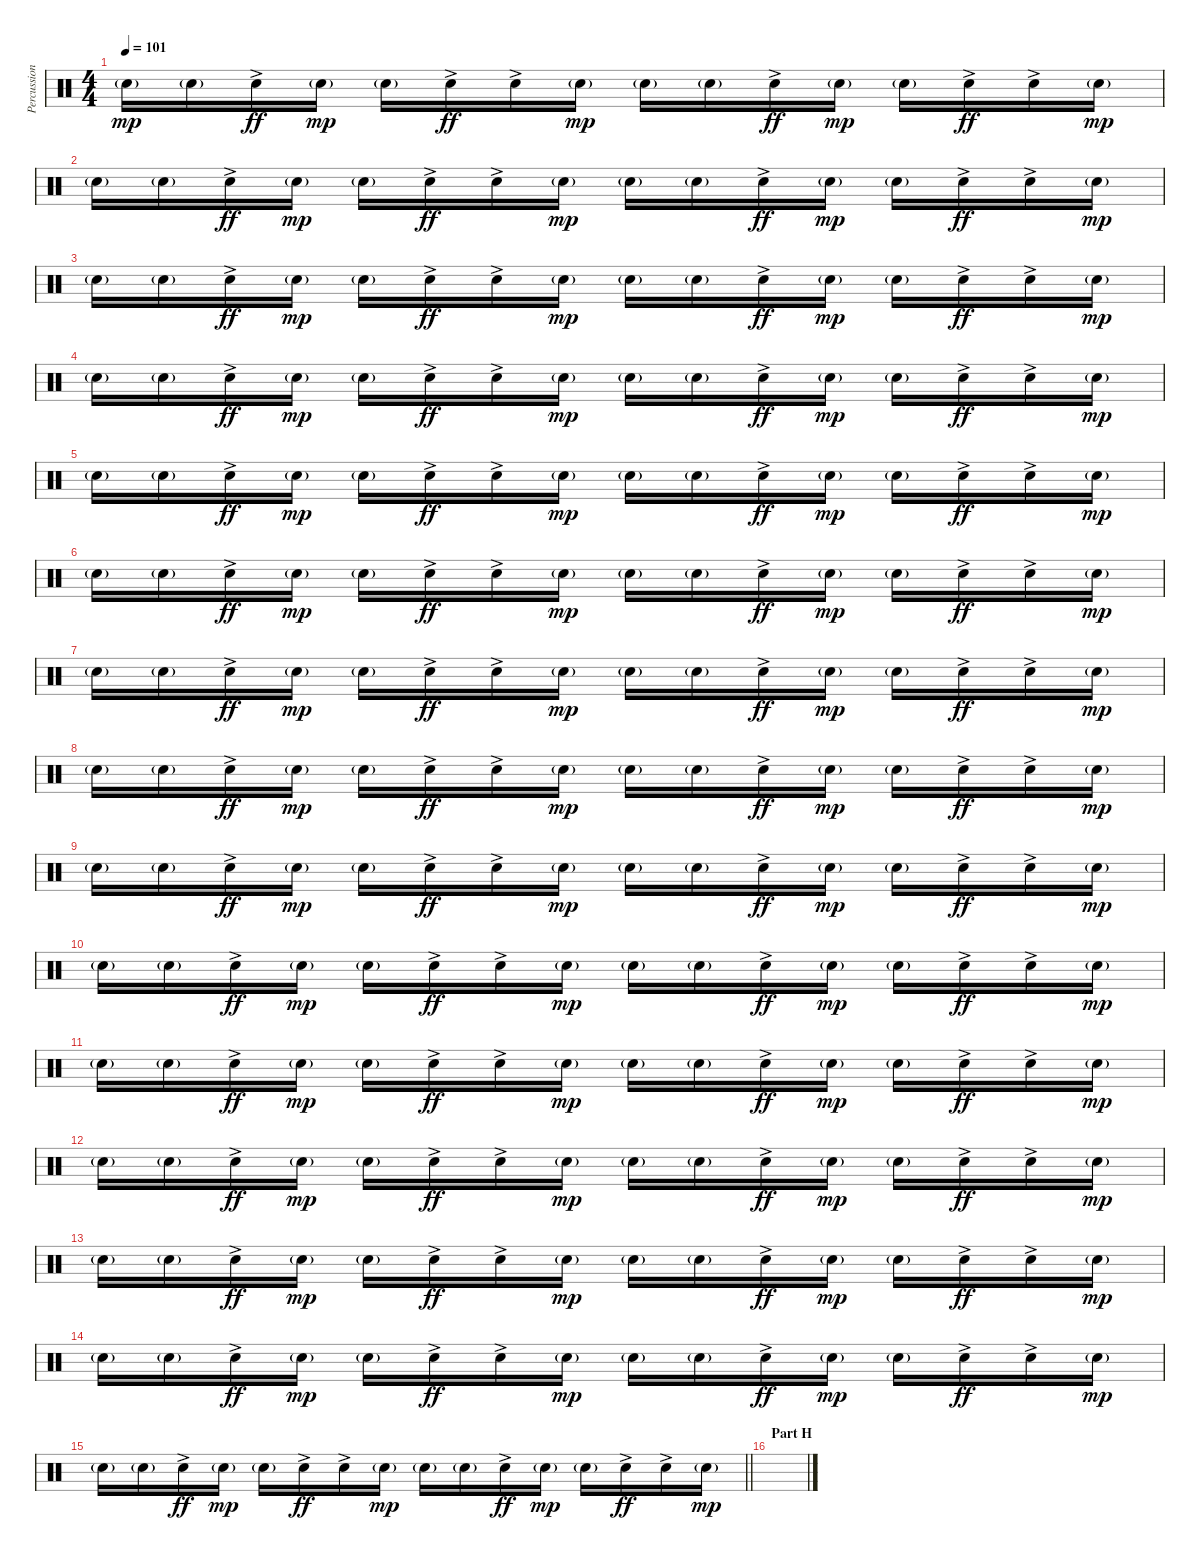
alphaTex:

\track ("Percussion" "Percussion") {instrument percussion}
\staff {score}
\articulation defaults
\ts (4 4)
\tempo 101
\clef neutral
\ks c "Electric Snare (hit)"{g}.16{dy mp} "Electric Snare (hit)"{g}.16 "Electric Snare (hit)"{ac}.16{dy ff} "Electric Snare (hit)"{g}.16{dy mp} "Electric Snare (hit)"{g}.16 "Electric Snare (hit)"{ac}.16{dy ff} "Electric Snare (hit)"{ac}.16 "Electric Snare (hit)"{g}.16{dy mp} "Electric Snare (hit)"{g}.16 "Electric Snare (hit)"{g}.16 "Electric Snare (hit)"{ac}.16{dy ff} "Electric Snare (hit)"{g}.16{dy mp} "Electric Snare (hit)"{g}.16 "Electric Snare (hit)"{ac}.16{dy ff} "Electric Snare (hit)"{ac}.16 "Electric Snare (hit)"{g}.16{dy mp}
|
"Electric Snare (hit)"{g}.16 "Electric Snare (hit)"{g}.16 "Electric Snare (hit)"{ac}.16{dy ff} "Electric Snare (hit)"{g}.16{dy mp} "Electric Snare (hit)"{g}.16 "Electric Snare (hit)"{ac}.16{dy ff} "Electric Snare (hit)"{ac}.16 "Electric Snare (hit)"{g}.16{dy mp} "Electric Snare (hit)"{g}.16 "Electric Snare (hit)"{g}.16 "Electric Snare (hit)"{ac}.16{dy ff} "Electric Snare (hit)"{g}.16{dy mp} "Electric Snare (hit)"{g}.16 "Electric Snare (hit)"{ac}.16{dy ff} "Electric Snare (hit)"{ac}.16 "Electric Snare (hit)"{g}.16{dy mp} |
"Electric Snare (hit)"{g}.16 "Electric Snare (hit)"{g}.16 "Electric Snare (hit)"{ac}.16{dy ff} "Electric Snare (hit)"{g}.16{dy mp} "Electric Snare (hit)"{g}.16 "Electric Snare (hit)"{ac}.16{dy ff} "Electric Snare (hit)"{ac}.16 "Electric Snare (hit)"{g}.16{dy mp} "Electric Snare (hit)"{g}.16 "Electric Snare (hit)"{g}.16 "Electric Snare (hit)"{ac}.16{dy ff} "Electric Snare (hit)"{g}.16{dy mp} "Electric Snare (hit)"{g}.16 "Electric Snare (hit)"{ac}.16{dy ff} "Electric Snare (hit)"{ac}.16 "Electric Snare (hit)"{g}.16{dy mp} |
"Electric Snare (hit)"{g}.16 "Electric Snare (hit)"{g}.16 "Electric Snare (hit)"{ac}.16{dy ff} "Electric Snare (hit)"{g}.16{dy mp} "Electric Snare (hit)"{g}.16 "Electric Snare (hit)"{ac}.16{dy ff} "Electric Snare (hit)"{ac}.16 "Electric Snare (hit)"{g}.16{dy mp} "Electric Snare (hit)"{g}.16 "Electric Snare (hit)"{g}.16 "Electric Snare (hit)"{ac}.16{dy ff} "Electric Snare (hit)"{g}.16{dy mp} "Electric Snare (hit)"{g}.16 "Electric Snare (hit)"{ac}.16{dy ff} "Electric Snare (hit)"{ac}.16 "Electric Snare (hit)"{g}.16{dy mp} |
"Electric Snare (hit)"{g}.16 "Electric Snare (hit)"{g}.16 "Electric Snare (hit)"{ac}.16{dy ff} "Electric Snare (hit)"{g}.16{dy mp} "Electric Snare (hit)"{g}.16 "Electric Snare (hit)"{ac}.16{dy ff} "Electric Snare (hit)"{ac}.16 "Electric Snare (hit)"{g}.16{dy mp} "Electric Snare (hit)"{g}.16 "Electric Snare (hit)"{g}.16 "Electric Snare (hit)"{ac}.16{dy ff} "Electric Snare (hit)"{g}.16{dy mp} "Electric Snare (hit)"{g}.16 "Electric Snare (hit)"{ac}.16{dy ff} "Electric Snare (hit)"{ac}.16 "Electric Snare (hit)"{g}.16{dy mp} |
"Electric Snare (hit)"{g}.16 "Electric Snare (hit)"{g}.16 "Electric Snare (hit)"{ac}.16{dy ff} "Electric Snare (hit)"{g}.16{dy mp} "Electric Snare (hit)"{g}.16 "Electric Snare (hit)"{ac}.16{dy ff} "Electric Snare (hit)"{ac}.16 "Electric Snare (hit)"{g}.16{dy mp} "Electric Snare (hit)"{g}.16 "Electric Snare (hit)"{g}.16 "Electric Snare (hit)"{ac}.16{dy ff} "Electric Snare (hit)"{g}.16{dy mp} "Electric Snare (hit)"{g}.16 "Electric Snare (hit)"{ac}.16{dy ff} "Electric Snare (hit)"{ac}.16 "Electric Snare (hit)"{g}.16{dy mp} |
"Electric Snare (hit)"{g}.16 "Electric Snare (hit)"{g}.16 "Electric Snare (hit)"{ac}.16{dy ff} "Electric Snare (hit)"{g}.16{dy mp} "Electric Snare (hit)"{g}.16 "Electric Snare (hit)"{ac}.16{dy ff} "Electric Snare (hit)"{ac}.16 "Electric Snare (hit)"{g}.16{dy mp} "Electric Snare (hit)"{g}.16 "Electric Snare (hit)"{g}.16 "Electric Snare (hit)"{ac}.16{dy ff} "Electric Snare (hit)"{g}.16{dy mp} "Electric Snare (hit)"{g}.16 "Electric Snare (hit)"{ac}.16{dy ff} "Electric Snare (hit)"{ac}.16 "Electric Snare (hit)"{g}.16{dy mp} |
"Electric Snare (hit)"{g}.16 "Electric Snare (hit)"{g}.16 "Electric Snare (hit)"{ac}.16{dy ff} "Electric Snare (hit)"{g}.16{dy mp} "Electric Snare (hit)"{g}.16 "Electric Snare (hit)"{ac}.16{dy ff} "Electric Snare (hit)"{ac}.16 "Electric Snare (hit)"{g}.16{dy mp} "Electric Snare (hit)"{g}.16 "Electric Snare (hit)"{g}.16 "Electric Snare (hit)"{ac}.16{dy ff} "Electric Snare (hit)"{g}.16{dy mp} "Electric Snare (hit)"{g}.16 "Electric Snare (hit)"{ac}.16{dy ff} "Electric Snare (hit)"{ac}.16 "Electric Snare (hit)"{g}.16{dy mp} |
"Electric Snare (hit)"{g}.16 "Electric Snare (hit)"{g}.16 "Electric Snare (hit)"{ac}.16{dy ff} "Electric Snare (hit)"{g}.16{dy mp} "Electric Snare (hit)"{g}.16 "Electric Snare (hit)"{ac}.16{dy ff} "Electric Snare (hit)"{ac}.16 "Electric Snare (hit)"{g}.16{dy mp} "Electric Snare (hit)"{g}.16 "Electric Snare (hit)"{g}.16 "Electric Snare (hit)"{ac}.16{dy ff} "Electric Snare (hit)"{g}.16{dy mp} "Electric Snare (hit)"{g}.16 "Electric Snare (hit)"{ac}.16{dy ff} "Electric Snare (hit)"{ac}.16 "Electric Snare (hit)"{g}.16{dy mp} |
"Electric Snare (hit)"{g}.16 "Electric Snare (hit)"{g}.16 "Electric Snare (hit)"{ac}.16{dy ff} "Electric Snare (hit)"{g}.16{dy mp} "Electric Snare (hit)"{g}.16 "Electric Snare (hit)"{ac}.16{dy ff} "Electric Snare (hit)"{ac}.16 "Electric Snare (hit)"{g}.16{dy mp} "Electric Snare (hit)"{g}.16 "Electric Snare (hit)"{g}.16 "Electric Snare (hit)"{ac}.16{dy ff} "Electric Snare (hit)"{g}.16{dy mp} "Electric Snare (hit)"{g}.16 "Electric Snare (hit)"{ac}.16{dy ff} "Electric Snare (hit)"{ac}.16 "Electric Snare (hit)"{g}.16{dy mp} |
"Electric Snare (hit)"{g}.16 "Electric Snare (hit)"{g}.16 "Electric Snare (hit)"{ac}.16{dy ff} "Electric Snare (hit)"{g}.16{dy mp} "Electric Snare (hit)"{g}.16 "Electric Snare (hit)"{ac}.16{dy ff} "Electric Snare (hit)"{ac}.16 "Electric Snare (hit)"{g}.16{dy mp} "Electric Snare (hit)"{g}.16 "Electric Snare (hit)"{g}.16 "Electric Snare (hit)"{ac}.16{dy ff} "Electric Snare (hit)"{g}.16{dy mp} "Electric Snare (hit)"{g}.16 "Electric Snare (hit)"{ac}.16{dy ff} "Electric Snare (hit)"{ac}.16 "Electric Snare (hit)"{g}.16{dy mp} |
"Electric Snare (hit)"{g}.16 "Electric Snare (hit)"{g}.16 "Electric Snare (hit)"{ac}.16{dy ff} "Electric Snare (hit)"{g}.16{dy mp} "Electric Snare (hit)"{g}.16 "Electric Snare (hit)"{ac}.16{dy ff} "Electric Snare (hit)"{ac}.16 "Electric Snare (hit)"{g}.16{dy mp} "Electric Snare (hit)"{g}.16 "Electric Snare (hit)"{g}.16 "Electric Snare (hit)"{ac}.16{dy ff} "Electric Snare (hit)"{g}.16{dy mp} "Electric Snare (hit)"{g}.16 "Electric Snare (hit)"{ac}.16{dy ff} "Electric Snare (hit)"{ac}.16 "Electric Snare (hit)"{g}.16{dy mp} |
"Electric Snare (hit)"{g}.16 "Electric Snare (hit)"{g}.16 "Electric Snare (hit)"{ac}.16{dy ff} "Electric Snare (hit)"{g}.16{dy mp} "Electric Snare (hit)"{g}.16 "Electric Snare (hit)"{ac}.16{dy ff} "Electric Snare (hit)"{ac}.16 "Electric Snare (hit)"{g}.16{dy mp} "Electric Snare (hit)"{g}.16 "Electric Snare (hit)"{g}.16 "Electric Snare (hit)"{ac}.16{dy ff} "Electric Snare (hit)"{g}.16{dy mp} "Electric Snare (hit)"{g}.16 "Electric Snare (hit)"{ac}.16{dy ff} "Electric Snare (hit)"{ac}.16 "Electric Snare (hit)"{g}.16{dy mp} |
"Electric Snare (hit)"{g}.16 "Electric Snare (hit)"{g}.16 "Electric Snare (hit)"{ac}.16{dy ff} "Electric Snare (hit)"{g}.16{dy mp} "Electric Snare (hit)"{g}.16 "Electric Snare (hit)"{ac}.16{dy ff} "Electric Snare (hit)"{ac}.16 "Electric Snare (hit)"{g}.16{dy mp} "Electric Snare (hit)"{g}.16 "Electric Snare (hit)"{g}.16 "Electric Snare (hit)"{ac}.16{dy ff} "Electric Snare (hit)"{g}.16{dy mp} "Electric Snare (hit)"{g}.16 "Electric Snare (hit)"{ac}.16{dy ff} "Electric Snare (hit)"{ac}.16 "Electric Snare (hit)"{g}.16{dy mp} |
\barLineRight lightlight "Electric Snare (hit)"{g}.16 "Electric Snare (hit)"{g}.16 "Electric Snare (hit)"{ac}.16{dy ff} "Electric Snare (hit)"{g}.16{dy mp} "Electric Snare (hit)"{g}.16 "Electric Snare (hit)"{ac}.16{dy ff} "Electric Snare (hit)"{ac}.16 "Electric Snare (hit)"{g}.16{dy mp} "Electric Snare (hit)"{g}.16 "Electric Snare (hit)"{g}.16 "Electric Snare (hit)"{ac}.16{dy ff} "Electric Snare (hit)"{g}.16{dy mp} "Electric Snare (hit)"{g}.16 "Electric Snare (hit)"{ac}.16{dy ff} "Electric Snare (hit)"{ac}.16 "Electric Snare (hit)"{g}.16{dy mp}
|
\section ("" "Part H")
